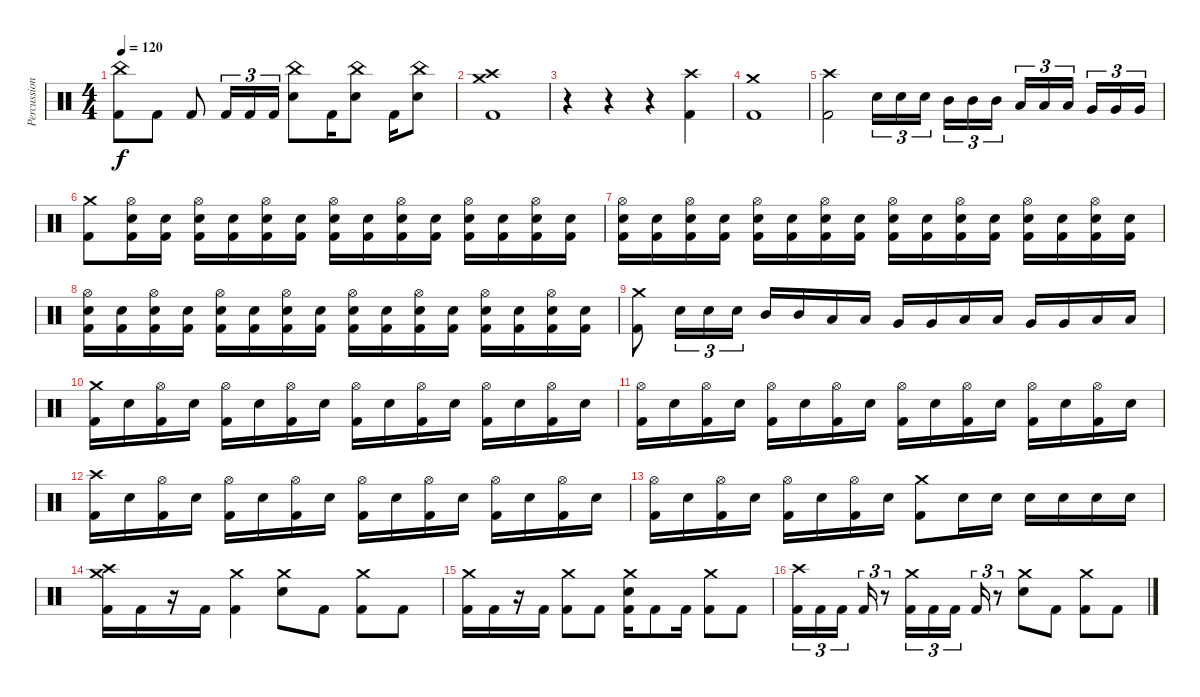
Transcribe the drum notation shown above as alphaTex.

\track ("Percussion" "Percussion") {instrument percussion}
\staff {score}
\articulation defaults
\ts (4 4)
\tempo 120
\clef neutral
\ks c
("China (hit)" "Kick (hit) 2").8{dy f} "Kick (hit) 2".8 "Kick (hit) 2".8 "Kick (hit) 2".16{tu (3 2)} "Kick (hit) 2".16{tu (3 2)} "Kick (hit) 2".16{tu (3 2)} ("China (hit)" "Electric Snare (hit)").8 "Kick (hit) 2".16 ("China (hit)" "Electric Snare (hit)").8 "Kick (hit) 2".16 ("China (hit)" "Electric Snare (hit)").8 |
("Crash high (hit)" "Crash medium (hit)" "Kick (hit) 2").1 |
r.4 r.4 r.4 ("Crash high (hit)" "Kick (hit) 2").4 |
("Crash medium (hit)" "Kick (hit) 2").1 |
("Crash high (hit)" "Kick (hit) 2").2 "Electric Snare (hit)".16{tu (3 2)} "Electric Snare (hit)".16{tu (3 2)} "Electric Snare (hit)".16{tu (3 2) beam splitsecondary} "Mid Tom (hit)".16{tu (3 2)} "Mid Tom (hit)".16{tu (3 2)} "Mid Tom (hit)".16{tu (3 2)} "Low Tom (hit)".16{tu (3 2)} "Low Tom (hit)".16{tu (3 2)} "Low Tom (hit)".16{tu (3 2) beam splitsecondary} "Very Low Tom (hit)".16{tu (3 2)} "Very Low Tom (hit)".16{tu (3 2)} "Very Low Tom (hit)".16{tu (3 2)} |
("Crash medium (hit)" "Kick (hit) 2").8 ("Hi-Hat (open)" "Electric Snare (hit)" "Kick (hit) 2").16 ("Electric Snare (hit)" "Kick (hit) 2").16 ("Hi-Hat (open)" "Electric Snare (hit)" "Kick (hit) 2").16 ("Electric Snare (hit)" "Kick (hit) 2").16 ("Hi-Hat (open)" "Electric Snare (hit)" "Kick (hit) 2").16 ("Electric Snare (hit)" "Kick (hit) 2").16 ("Hi-Hat (open)" "Electric Snare (hit)" "Kick (hit) 2").16 ("Electric Snare (hit)" "Kick (hit) 2").16 ("Hi-Hat (open)" "Electric Snare (hit)" "Kick (hit) 2").16 ("Electric Snare (hit)" "Kick (hit) 2").16 ("Hi-Hat (open)" "Electric Snare (hit)" "Kick (hit) 2").16 ("Electric Snare (hit)" "Kick (hit) 2").16 ("Hi-Hat (open)" "Electric Snare (hit)" "Kick (hit) 2").16 ("Electric Snare (hit)" "Kick (hit) 2").16 |
("Hi-Hat (open)" "Electric Snare (hit)" "Kick (hit) 2").16 ("Electric Snare (hit)" "Kick (hit) 2").16 ("Hi-Hat (open)" "Electric Snare (hit)" "Kick (hit) 2").16 ("Electric Snare (hit)" "Kick (hit) 2").16 ("Hi-Hat (open)" "Electric Snare (hit)" "Kick (hit) 2").16 ("Electric Snare (hit)" "Kick (hit) 2").16 ("Hi-Hat (open)" "Electric Snare (hit)" "Kick (hit) 2").16 ("Electric Snare (hit)" "Kick (hit) 2").16 ("Hi-Hat (open)" "Electric Snare (hit)" "Kick (hit) 2").16 ("Electric Snare (hit)" "Kick (hit) 2").16 ("Hi-Hat (open)" "Electric Snare (hit)" "Kick (hit) 2").16 ("Electric Snare (hit)" "Kick (hit) 2").16 ("Hi-Hat (open)" "Electric Snare (hit)" "Kick (hit) 2").16 ("Electric Snare (hit)" "Kick (hit) 2").16 ("Hi-Hat (open)" "Electric Snare (hit)" "Kick (hit) 2").16 ("Electric Snare (hit)" "Kick (hit) 2").16 |
("Hi-Hat (open)" "Electric Snare (hit)" "Kick (hit) 2").16 ("Electric Snare (hit)" "Kick (hit) 2").16 ("Hi-Hat (open)" "Electric Snare (hit)" "Kick (hit) 2").16 ("Electric Snare (hit)" "Kick (hit) 2").16 ("Hi-Hat (open)" "Electric Snare (hit)" "Kick (hit) 2").16 ("Electric Snare (hit)" "Kick (hit) 2").16 ("Hi-Hat (open)" "Electric Snare (hit)" "Kick (hit) 2").16 ("Electric Snare (hit)" "Kick (hit) 2").16 ("Hi-Hat (open)" "Electric Snare (hit)" "Kick (hit) 2").16 ("Electric Snare (hit)" "Kick (hit) 2").16 ("Hi-Hat (open)" "Electric Snare (hit)" "Kick (hit) 2").16 ("Electric Snare (hit)" "Kick (hit) 2").16 ("Hi-Hat (open)" "Electric Snare (hit)" "Kick (hit) 2").16 ("Electric Snare (hit)" "Kick (hit) 2").16 ("Hi-Hat (open)" "Electric Snare (hit)" "Kick (hit) 2").16 ("Electric Snare (hit)" "Kick (hit) 2").16 |
("Crash medium (hit)" "Kick (hit) 2").8 "Electric Snare (hit)".16{tu (3 2)} "Electric Snare (hit)".16{tu (3 2)} "Electric Snare (hit)".16{tu (3 2)} "Mid Tom (hit)".16 "Mid Tom (hit)".16 "Low Tom (hit)".16 "Low Tom (hit)".16 "Very Low Tom (hit)".16 "Very Low Tom (hit)".16 "Low Tom (hit)".16 "Low Tom (hit)".16 "Very Low Tom (hit)".16 "Very Low Tom (hit)".16 "Low Floor Tom (hit)".16 "Low Floor Tom (hit)".16 |
("Crash medium (hit)" "Kick (hit) 2").16 "Electric Snare (hit)".16 ("Hi-Hat (open)" "Kick (hit) 2").16 "Electric Snare (hit)".16 ("Hi-Hat (open)" "Kick (hit) 2").16 "Electric Snare (hit)".16 ("Hi-Hat (open)" "Kick (hit) 2").16 "Electric Snare (hit)".16 ("Hi-Hat (open)" "Kick (hit) 2").16 "Electric Snare (hit)".16 ("Hi-Hat (open)" "Kick (hit) 2").16 "Electric Snare (hit)".16 ("Hi-Hat (open)" "Kick (hit) 2").16 "Electric Snare (hit)".16 ("Hi-Hat (open)" "Kick (hit) 2").16 "Electric Snare (hit)".16 |
("Hi-Hat (open)" "Kick (hit) 2").16 "Electric Snare (hit)".16 ("Hi-Hat (open)" "Kick (hit) 2").16 "Electric Snare (hit)".16 ("Hi-Hat (open)" "Kick (hit) 2").16 "Electric Snare (hit)".16 ("Hi-Hat (open)" "Kick (hit) 2").16 "Electric Snare (hit)".16 ("Hi-Hat (open)" "Kick (hit) 2").16 "Electric Snare (hit)".16 ("Hi-Hat (open)" "Kick (hit) 2").16 "Electric Snare (hit)".16 ("Hi-Hat (open)" "Kick (hit) 2").16 "Electric Snare (hit)".16 ("Hi-Hat (open)" "Kick (hit) 2").16 "Electric Snare (hit)".16 |
("Crash high (hit)" "Kick (hit) 2").16 "Electric Snare (hit)".16 ("Hi-Hat (open)" "Kick (hit) 2").16 "Electric Snare (hit)".16 ("Hi-Hat (open)" "Kick (hit) 2").16 "Electric Snare (hit)".16 ("Hi-Hat (open)" "Kick (hit) 2").16 "Electric Snare (hit)".16 ("Hi-Hat (open)" "Kick (hit) 2").16 "Electric Snare (hit)".16 ("Hi-Hat (open)" "Kick (hit) 2").16 "Electric Snare (hit)".16 ("Hi-Hat (open)" "Kick (hit) 2").16 "Electric Snare (hit)".16 ("Hi-Hat (open)" "Kick (hit) 2").16 "Electric Snare (hit)".16 |
("Hi-Hat (open)" "Kick (hit) 2").16 "Electric Snare (hit)".16 ("Hi-Hat (open)" "Kick (hit) 2").16 "Electric Snare (hit)".16 ("Hi-Hat (open)" "Kick (hit) 2").16 "Electric Snare (hit)".16 ("Hi-Hat (open)" "Kick (hit) 2").16 "Electric Snare (hit)".16 ("Crash medium (hit)" "Kick (hit) 2").8 "Electric Snare (hit)".16 "Electric Snare (hit)".16 "Electric Snare (hit)".16 "Electric Snare (hit)".16 "Electric Snare (hit)".16 "Electric Snare (hit)".16 |
("Crash high (hit)" "Crash medium (hit)" "Kick (hit) 2").16 "Kick (hit) 2".16 r.16 "Kick (hit) 2".16 ("Crash medium (hit)" "Kick (hit) 2").4 ("Crash medium (hit)" "Electric Snare (hit)").8 "Kick (hit) 2".8 ("Crash medium (hit)" "Kick (hit) 2").8 "Kick (hit) 2".8 |
("Crash medium (hit)" "Kick (hit) 2").16 "Kick (hit) 2".16 r.16 "Kick (hit) 2".16 ("Crash medium (hit)" "Kick (hit) 2").8 "Kick (hit) 2".8 ("Crash medium (hit)" "Electric Snare (hit)" "Kick (hit) 2").16 "Kick (hit) 2".8 "Kick (hit) 2".16 ("Crash medium (hit)" "Kick (hit) 2").8 "Kick (hit) 2".8 |
("Crash high (hit)" "Kick (hit) 2").16{tu (3 2)} "Kick (hit) 2".16{tu (3 2)} "Kick (hit) 2".16{tu (3 2) beam splitsecondary} "Kick (hit) 2".16{tu (3 2)} r.8{tu (3 2)} ("Crash medium (hit)" "Kick (hit) 2").16{tu (3 2)} "Kick (hit) 2".16{tu (3 2)} "Kick (hit) 2".16{tu (3 2) beam splitsecondary} "Kick (hit) 2".16{tu (3 2)} r.8{tu (3 2)} ("Crash medium (hit)" "Electric Snare (hit)").8 "Kick (hit) 2".8 ("Crash medium (hit)" "Kick (hit) 2").8 "Kick (hit) 2".8
